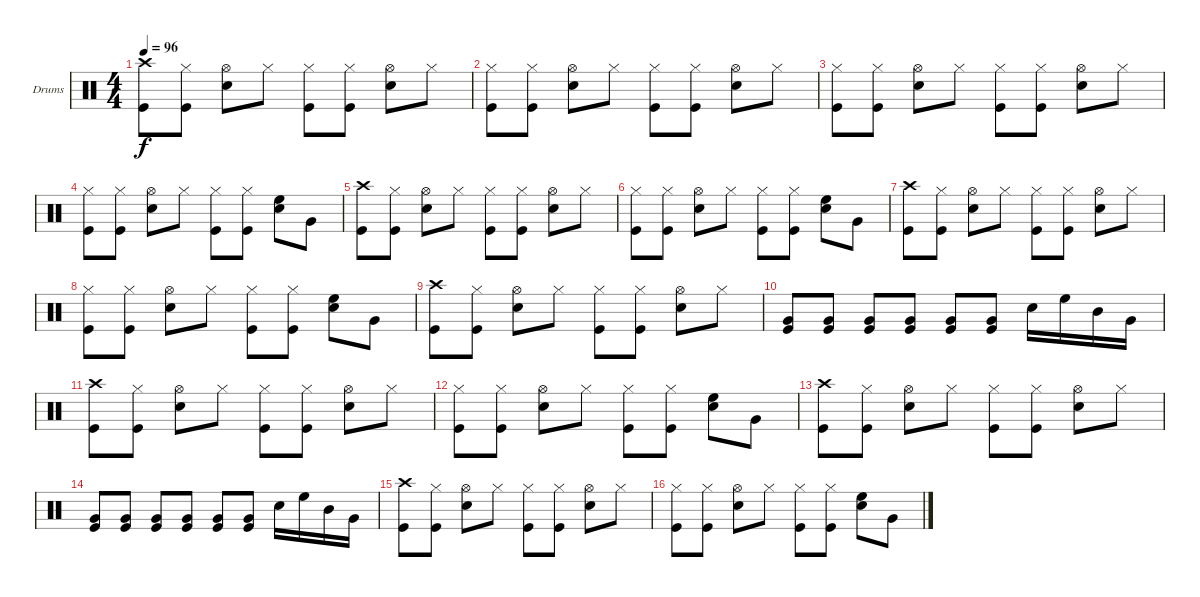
\bracketExtendMode groupsimilarinstruments
\firstSystemTrackNameOrientation horizontal
\otherSystemsTrackNameOrientation horizontal
\track ("Drumkit" "Drums") {instrument percussion}
\staff {score}
\articulation defaults
\ts (4 4)
\tempo 96
\clef neutral
\ks c
("Crash high (hit)" "Kick (hit)").8{dy f} ("Hi-Hat (closed)" "Kick (hit)").8 ("Hi-Hat (open)" "Snare (hit) 2").8 "Hi-Hat (closed)".8 ("Hi-Hat (closed)" "Kick (hit)").8 ("Hi-Hat (closed)" "Kick (hit)").8 ("Hi-Hat (open)" "Snare (hit) 2").8 "Hi-Hat (closed)".8 |
("Hi-Hat (closed)" "Kick (hit)").8 ("Hi-Hat (closed)" "Kick (hit)").8 ("Hi-Hat (open)" "Snare (hit) 2").8 "Hi-Hat (closed)".8 ("Hi-Hat (closed)" "Kick (hit)").8 ("Hi-Hat (closed)" "Kick (hit)").8 ("Hi-Hat (open)" "Snare (hit) 2").8 "Hi-Hat (closed)".8 |
("Hi-Hat (closed)" "Kick (hit)").8 ("Hi-Hat (closed)" "Kick (hit)").8 ("Hi-Hat (open)" "Snare (hit) 2").8 "Hi-Hat (closed)".8 ("Hi-Hat (closed)" "Kick (hit)").8 ("Hi-Hat (closed)" "Kick (hit)").8 ("Hi-Hat (open)" "Snare (hit) 2").8 "Hi-Hat (closed)".8 |
("Hi-Hat (closed)" "Kick (hit)").8 ("Hi-Hat (closed)" "Kick (hit)").8 ("Hi-Hat (open)" "Snare (hit) 2").8 "Hi-Hat (closed)".8 ("Hi-Hat (closed)" "Kick (hit)").8 ("Hi-Hat (closed)" "Kick (hit)").8 ("Snare (hit) 2" "High Floor Tom (hit)").8 "Very Low Tom (hit)".8 |
("Crash high (hit)" "Kick (hit)").8 ("Hi-Hat (closed)" "Kick (hit)").8 ("Hi-Hat (open)" "Snare (hit) 2").8 "Hi-Hat (closed)".8 ("Hi-Hat (closed)" "Kick (hit)").8 ("Hi-Hat (closed)" "Kick (hit)").8 ("Hi-Hat (open)" "Snare (hit) 2").8 "Hi-Hat (closed)".8 |
("Hi-Hat (closed)" "Kick (hit)").8 ("Hi-Hat (closed)" "Kick (hit)").8 ("Hi-Hat (open)" "Snare (hit) 2").8 "Hi-Hat (closed)".8 ("Hi-Hat (closed)" "Kick (hit)").8 ("Hi-Hat (closed)" "Kick (hit)").8 ("Snare (hit) 2" "High Floor Tom (hit)").8 "Very Low Tom (hit)".8 |
("Crash high (hit)" "Kick (hit)").8 ("Hi-Hat (closed)" "Kick (hit)").8 ("Hi-Hat (open)" "Snare (hit) 2").8 "Hi-Hat (closed)".8 ("Hi-Hat (closed)" "Kick (hit)").8 ("Hi-Hat (closed)" "Kick (hit)").8 ("Hi-Hat (open)" "Snare (hit) 2").8 "Hi-Hat (closed)".8 |
("Hi-Hat (closed)" "Kick (hit)").8 ("Hi-Hat (closed)" "Kick (hit)").8 ("Hi-Hat (open)" "Snare (hit) 2").8 "Hi-Hat (closed)".8 ("Hi-Hat (closed)" "Kick (hit)").8 ("Hi-Hat (closed)" "Kick (hit)").8 ("Snare (hit) 2" "High Floor Tom (hit)").8 "Very Low Tom (hit)".8 |
("Crash high (hit)" "Kick (hit)").8 ("Hi-Hat (closed)" "Kick (hit)").8 ("Hi-Hat (open)" "Snare (hit) 2").8 "Hi-Hat (closed)".8 ("Hi-Hat (closed)" "Kick (hit)").8 ("Hi-Hat (closed)" "Kick (hit)").8 ("Hi-Hat (open)" "Snare (hit) 2").8 "Hi-Hat (closed)".8 |
("Kick (hit)" "Very Low Tom (hit)").8 ("Kick (hit)" "Very Low Tom (hit)").8 ("Kick (hit)" "Very Low Tom (hit)").8 ("Kick (hit)" "Very Low Tom (hit)").8 ("Kick (hit)" "Very Low Tom (hit)").8 ("Kick (hit)" "Very Low Tom (hit)").8 "Snare (hit) 2".16 "High Floor Tom (hit)".16 "Mid Tom (hit)".16 "Very Low Tom (hit)".16 |
("Crash high (hit)" "Kick (hit)").8 ("Hi-Hat (closed)" "Kick (hit)").8 ("Hi-Hat (open)" "Snare (hit) 2").8 "Hi-Hat (closed)".8 ("Hi-Hat (closed)" "Kick (hit)").8 ("Hi-Hat (closed)" "Kick (hit)").8 ("Hi-Hat (open)" "Snare (hit) 2").8 "Hi-Hat (closed)".8 |
("Hi-Hat (closed)" "Kick (hit)").8 ("Hi-Hat (closed)" "Kick (hit)").8 ("Hi-Hat (open)" "Snare (hit) 2").8 "Hi-Hat (closed)".8 ("Hi-Hat (closed)" "Kick (hit)").8 ("Hi-Hat (closed)" "Kick (hit)").8 ("Snare (hit) 2" "High Floor Tom (hit)").8 "Very Low Tom (hit)".8 |
("Crash high (hit)" "Kick (hit)").8 ("Hi-Hat (closed)" "Kick (hit)").8 ("Hi-Hat (open)" "Snare (hit) 2").8 "Hi-Hat (closed)".8 ("Hi-Hat (closed)" "Kick (hit)").8 ("Hi-Hat (closed)" "Kick (hit)").8 ("Hi-Hat (open)" "Snare (hit) 2").8 "Hi-Hat (closed)".8 |
("Kick (hit)" "Very Low Tom (hit)").8 ("Kick (hit)" "Very Low Tom (hit)").8 ("Kick (hit)" "Very Low Tom (hit)").8 ("Kick (hit)" "Very Low Tom (hit)").8 ("Kick (hit)" "Very Low Tom (hit)").8 ("Kick (hit)" "Very Low Tom (hit)").8 "Snare (hit) 2".16 "High Floor Tom (hit)".16 "Mid Tom (hit)".16 "Very Low Tom (hit)".16 |
("Crash high (hit)" "Kick (hit)").8 ("Hi-Hat (closed)" "Kick (hit)").8 ("Hi-Hat (open)" "Snare (hit) 2").8 "Hi-Hat (closed)".8 ("Hi-Hat (closed)" "Kick (hit)").8 ("Hi-Hat (closed)" "Kick (hit)").8 ("Hi-Hat (open)" "Snare (hit) 2").8 "Hi-Hat (closed)".8 |
("Hi-Hat (closed)" "Kick (hit)").8 ("Hi-Hat (closed)" "Kick (hit)").8 ("Hi-Hat (open)" "Snare (hit) 2").8 "Hi-Hat (closed)".8 ("Hi-Hat (closed)" "Kick (hit)").8 ("Hi-Hat (closed)" "Kick (hit)").8 ("Snare (hit) 2" "High Floor Tom (hit)").8 "Very Low Tom (hit)".8
